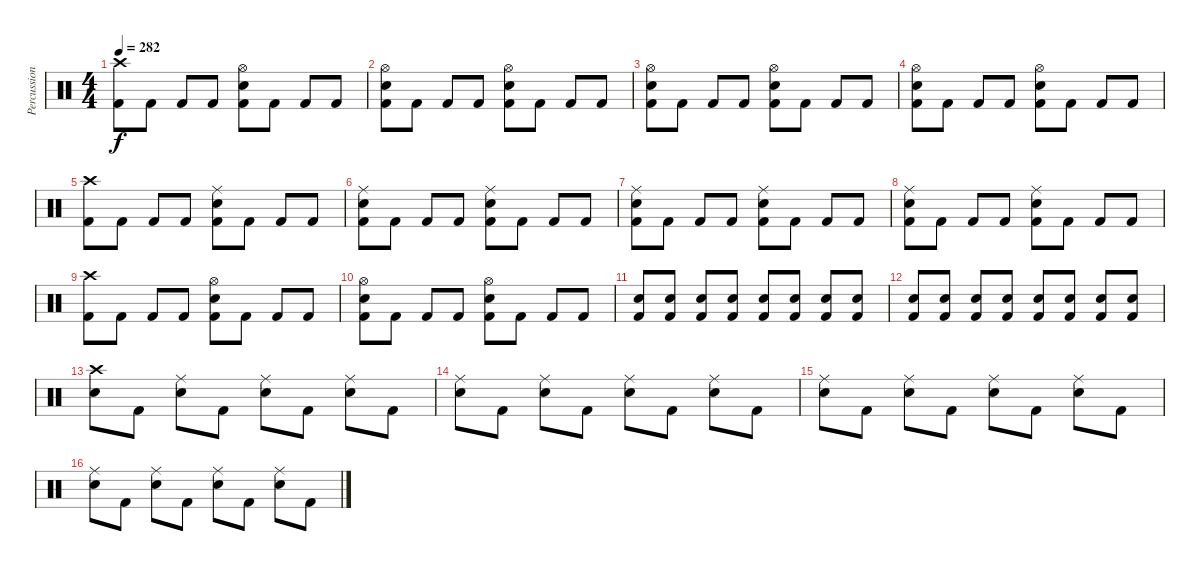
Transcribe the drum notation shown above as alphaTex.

\track ("Percussion" "Percussion") {instrument percussion}
\staff {score}
\articulation defaults
\ts (4 4)
\tempo 282
\clef neutral
\ks c
("Kick (hit) 2" "Crash high (hit)").8{dy f} "Kick (hit) 2".8 "Kick (hit) 2".8 "Kick (hit) 2".8 ("Kick (hit) 2" "Snare (hit) 2" "Hi-Hat (open)").8 "Kick (hit) 2".8 "Kick (hit) 2".8 "Kick (hit) 2".8 |
("Kick (hit) 2" "Snare (hit) 2" "Hi-Hat (open)").8 "Kick (hit) 2".8 "Kick (hit) 2".8 "Kick (hit) 2".8 ("Kick (hit) 2" "Snare (hit) 2" "Hi-Hat (open)").8 "Kick (hit) 2".8 "Kick (hit) 2".8 "Kick (hit) 2".8 |
("Kick (hit) 2" "Snare (hit) 2" "Hi-Hat (open)").8 "Kick (hit) 2".8 "Kick (hit) 2".8 "Kick (hit) 2".8 ("Kick (hit) 2" "Snare (hit) 2" "Hi-Hat (open)").8 "Kick (hit) 2".8 "Kick (hit) 2".8 "Kick (hit) 2".8 |
("Kick (hit) 2" "Snare (hit) 2" "Hi-Hat (open)").8 "Kick (hit) 2".8 "Kick (hit) 2".8 "Kick (hit) 2".8 ("Kick (hit) 2" "Snare (hit) 2" "Hi-Hat (open)").8 "Kick (hit) 2".8 "Kick (hit) 2".8 "Kick (hit) 2".8 |
("Kick (hit) 2" "Crash high (hit)").8 "Kick (hit) 2".8 "Kick (hit) 2".8 "Kick (hit) 2".8 ("Kick (hit) 2" "Snare (hit) 2" "Ride (middle)").8 "Kick (hit) 2".8 "Kick (hit) 2".8 "Kick (hit) 2".8 |
("Kick (hit) 2" "Snare (hit) 2" "Ride (middle)").8 "Kick (hit) 2".8 "Kick (hit) 2".8 "Kick (hit) 2".8 ("Kick (hit) 2" "Snare (hit) 2" "Ride (middle)").8 "Kick (hit) 2".8 "Kick (hit) 2".8 "Kick (hit) 2".8 |
("Kick (hit) 2" "Snare (hit) 2" "Ride (middle)").8 "Kick (hit) 2".8 "Kick (hit) 2".8 "Kick (hit) 2".8 ("Kick (hit) 2" "Snare (hit) 2" "Ride (middle)").8 "Kick (hit) 2".8 "Kick (hit) 2".8 "Kick (hit) 2".8 |
("Kick (hit) 2" "Snare (hit) 2" "Ride (middle)").8 "Kick (hit) 2".8 "Kick (hit) 2".8 "Kick (hit) 2".8 ("Kick (hit) 2" "Snare (hit) 2" "Ride (middle)").8 "Kick (hit) 2".8 "Kick (hit) 2".8 "Kick (hit) 2".8 |
("Kick (hit) 2" "Crash high (hit)").8 "Kick (hit) 2".8 "Kick (hit) 2".8 "Kick (hit) 2".8 ("Kick (hit) 2" "Snare (hit) 2" "Hi-Hat (open)").8 "Kick (hit) 2".8 "Kick (hit) 2".8 "Kick (hit) 2".8 |
("Kick (hit) 2" "Snare (hit) 2" "Hi-Hat (open)").8 "Kick (hit) 2".8 "Kick (hit) 2".8 "Kick (hit) 2".8 ("Kick (hit) 2" "Snare (hit) 2" "Hi-Hat (open)").8 "Kick (hit) 2".8 "Kick (hit) 2".8 "Kick (hit) 2".8 |
("Kick (hit) 2" "Snare (hit) 2").8 ("Kick (hit) 2" "Snare (hit) 2").8 ("Kick (hit) 2" "Snare (hit) 2").8 ("Kick (hit) 2" "Snare (hit) 2").8 ("Kick (hit) 2" "Snare (hit)"{x}).8 ("Kick (hit) 2" "Snare (hit)"{x}).8 ("Kick (hit) 2" "Snare (hit) 2").8 ("Kick (hit) 2" "Snare (hit) 2").8 |
("Kick (hit) 2" "Snare (hit) 2").8 ("Kick (hit) 2" "Snare (hit) 2").8 ("Kick (hit) 2" "Snare (hit)"{x}).8 ("Kick (hit) 2" "Snare (hit)"{x}).8 ("Kick (hit) 2" "Snare (hit) 2").8 ("Kick (hit) 2" "Snare (hit) 2").8 ("Kick (hit) 2" "Snare (hit) 2").8 ("Kick (hit) 2" "Snare (hit) 2").8 |
("Snare (hit) 2" "Crash high (hit)").8 "Kick (hit) 2".8 ("Snare (hit) 2" "Ride (middle)").8 "Kick (hit) 2".8 ("Snare (hit) 2" "Ride (middle)").8 "Kick (hit) 2".8 ("Snare (hit) 2" "Ride (middle)").8 "Kick (hit) 2".8 |
("Snare (hit) 2" "Ride (middle)").8 "Kick (hit) 2".8 ("Snare (hit) 2" "Ride (middle)").8 "Kick (hit) 2".8 ("Snare (hit) 2" "Ride (middle)").8 "Kick (hit) 2".8 ("Snare (hit) 2" "Ride (middle)").8 "Kick (hit) 2".8 |
("Snare (hit) 2" "Ride (middle)").8 "Kick (hit) 2".8 ("Snare (hit) 2" "Ride (middle)").8 "Kick (hit) 2".8 ("Snare (hit) 2" "Ride (middle)").8 "Kick (hit) 2".8 ("Snare (hit) 2" "Ride (middle)").8 "Kick (hit) 2".8 |
("Snare (hit) 2" "Ride (middle)").8 "Kick (hit) 2".8 ("Snare (hit) 2" "Ride (middle)").8 "Kick (hit) 2".8 ("Snare (hit) 2" "Ride (middle)").8 "Kick (hit) 2".8 ("Snare (hit) 2" "Ride (middle)").8 "Kick (hit) 2".8
